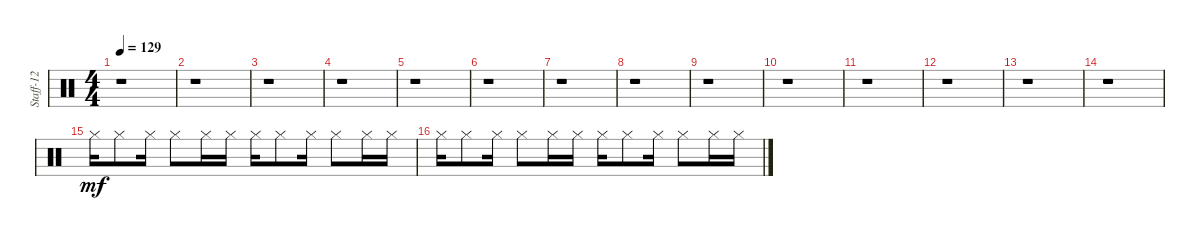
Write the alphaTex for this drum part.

\track ("Staff-12" "Staff-12") {instrument percussion}
\staff {score}
\articulation defaults
\ts (4 4)
\tempo 129
\clef neutral
\ks c
r.1{dy mf} |
r.1 |
r.1 |
r.1 |
r.1 |
r.1 |
r.1 |
r.1 |
r.1 |
r.1 |
r.1 |
r.1 |
r.1 |
r.1 |
"Hi-Hat (closed)".16 "Hi-Hat (closed)".8 "Hi-Hat (closed)".16 "Hi-Hat (closed)".8 "Hi-Hat (closed)".16 "Hi-Hat (closed)".16 "Hi-Hat (closed)".16 "Hi-Hat (closed)".8 "Hi-Hat (closed)".16 "Hi-Hat (closed)".8 "Hi-Hat (closed)".16 "Hi-Hat (closed)".16 |
"Hi-Hat (closed)".16 "Hi-Hat (closed)".8 "Hi-Hat (closed)".16 "Hi-Hat (closed)".8 "Hi-Hat (closed)".16 "Hi-Hat (closed)".16 "Hi-Hat (closed)".16 "Hi-Hat (closed)".8 "Hi-Hat (closed)".16 "Hi-Hat (closed)".8 "Hi-Hat (closed)".16 "Hi-Hat (closed)".16
